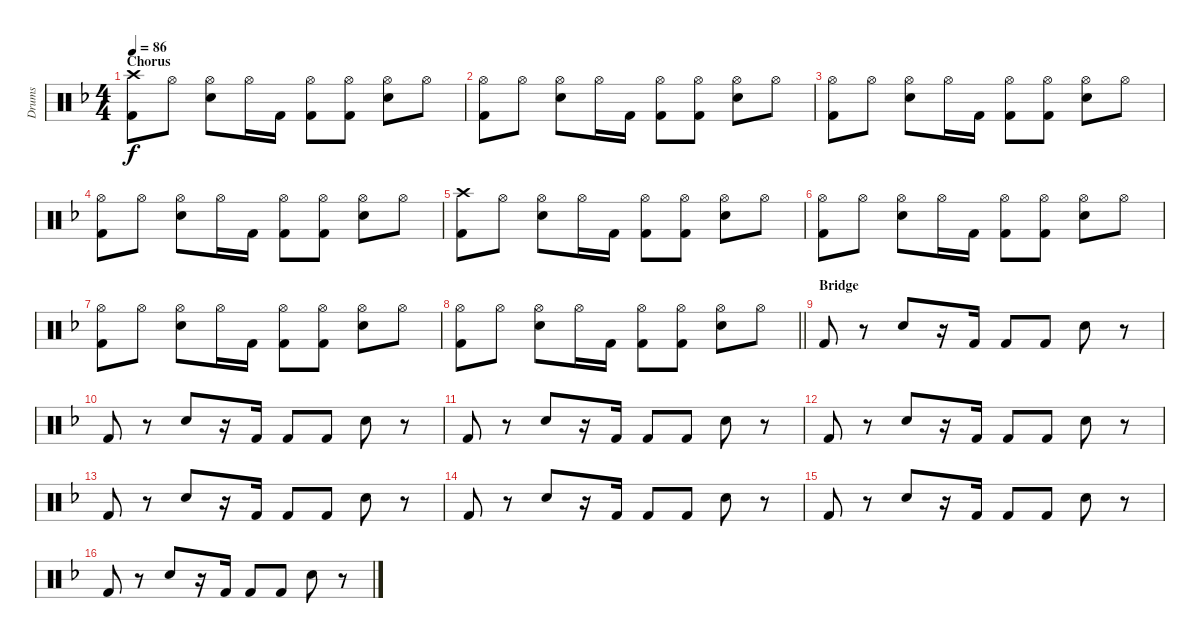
\track ("Drums" "Drums") {instrument percussion}
\staff {score}
\articulation defaults
\ts (4 4)
\section ("" "Chorus")
\tempo 86
\clef neutral
\ks dminor
("Crash high (hit)" "Kick (hit) 2").8{dy f} "Hi-Hat (open)".8 ("Hi-Hat (open)" "Snare (hit) 2").8 "Hi-Hat (open)".16 "Kick (hit) 2".16 ("Hi-Hat (open)" "Kick (hit) 2").8 ("Hi-Hat (open)" "Kick (hit) 2").8 ("Hi-Hat (open)" "Snare (hit) 2").8 "Hi-Hat (open)".8 |
("Hi-Hat (open)" "Kick (hit) 2").8 "Hi-Hat (open)".8 ("Hi-Hat (open)" "Snare (hit) 2").8 "Hi-Hat (open)".16 "Kick (hit) 2".16 ("Hi-Hat (open)" "Kick (hit) 2").8 ("Hi-Hat (open)" "Kick (hit) 2").8 ("Hi-Hat (open)" "Snare (hit) 2").8 "Hi-Hat (open)".8 |
("Hi-Hat (open)" "Kick (hit) 2").8 "Hi-Hat (open)".8 ("Hi-Hat (open)" "Snare (hit) 2").8 "Hi-Hat (open)".16 "Kick (hit) 2".16 ("Hi-Hat (open)" "Kick (hit) 2").8 ("Hi-Hat (open)" "Kick (hit) 2").8 ("Hi-Hat (open)" "Snare (hit) 2").8 "Hi-Hat (open)".8 |
("Hi-Hat (open)" "Kick (hit) 2").8 "Hi-Hat (open)".8 ("Hi-Hat (open)" "Snare (hit) 2").8 "Hi-Hat (open)".16 "Kick (hit) 2".16 ("Hi-Hat (open)" "Kick (hit) 2").8 ("Hi-Hat (open)" "Kick (hit) 2").8 ("Hi-Hat (open)" "Snare (hit) 2").8 "Hi-Hat (open)".8 |
("Crash high (hit)" "Kick (hit) 2").8 "Hi-Hat (open)".8 ("Hi-Hat (open)" "Snare (hit) 2").8 "Hi-Hat (open)".16 "Kick (hit) 2".16 ("Hi-Hat (open)" "Kick (hit) 2").8 ("Hi-Hat (open)" "Kick (hit) 2").8 ("Hi-Hat (open)" "Snare (hit) 2").8 "Hi-Hat (open)".8 |
("Hi-Hat (open)" "Kick (hit) 2").8 "Hi-Hat (open)".8 ("Hi-Hat (open)" "Snare (hit) 2").8 "Hi-Hat (open)".16 "Kick (hit) 2".16 ("Hi-Hat (open)" "Kick (hit) 2").8 ("Hi-Hat (open)" "Kick (hit) 2").8 ("Hi-Hat (open)" "Snare (hit) 2").8 "Hi-Hat (open)".8 |
("Hi-Hat (open)" "Kick (hit) 2").8 "Hi-Hat (open)".8 ("Hi-Hat (open)" "Snare (hit) 2").8 "Hi-Hat (open)".16 "Kick (hit) 2".16 ("Hi-Hat (open)" "Kick (hit) 2").8 ("Hi-Hat (open)" "Kick (hit) 2").8 ("Hi-Hat (open)" "Snare (hit) 2").8 "Hi-Hat (open)".8 |
\barLineRight lightlight
("Hi-Hat (open)" "Kick (hit) 2").8 "Hi-Hat (open)".8 ("Hi-Hat (open)" "Snare (hit) 2").8 "Hi-Hat (open)".16 "Kick (hit) 2".16 ("Hi-Hat (open)" "Kick (hit) 2").8 ("Hi-Hat (open)" "Kick (hit) 2").8 ("Hi-Hat (open)" "Snare (hit) 2").8 "Hi-Hat (open)".8 |
\section ("" "Bridge")
"Kick (hit) 2".8 r.8 "Snare (hit) 2".8 r.16 "Kick (hit) 2".16 "Kick (hit) 2".8 "Kick (hit) 2".8 "Snare (hit) 2".8 r.8 |
"Kick (hit) 2".8 r.8 "Snare (hit) 2".8 r.16 "Kick (hit) 2".16 "Kick (hit) 2".8 "Kick (hit) 2".8 "Snare (hit) 2".8 r.8 |
"Kick (hit) 2".8 r.8 "Snare (hit) 2".8 r.16 "Kick (hit) 2".16 "Kick (hit) 2".8 "Kick (hit) 2".8 "Snare (hit) 2".8 r.8 |
"Kick (hit) 2".8 r.8 "Snare (hit) 2".8 r.16 "Kick (hit) 2".16 "Kick (hit) 2".8 "Kick (hit) 2".8 "Snare (hit) 2".8 r.8 |
"Kick (hit) 2".8 r.8 "Snare (hit) 2".8 r.16 "Kick (hit) 2".16 "Kick (hit) 2".8 "Kick (hit) 2".8 "Snare (hit) 2".8 r.8 |
"Kick (hit) 2".8 r.8 "Snare (hit) 2".8 r.16 "Kick (hit) 2".16 "Kick (hit) 2".8 "Kick (hit) 2".8 "Snare (hit) 2".8 r.8 |
"Kick (hit) 2".8 r.8 "Snare (hit) 2".8 r.16 "Kick (hit) 2".16 "Kick (hit) 2".8 "Kick (hit) 2".8 "Snare (hit) 2".8 r.8 |
"Kick (hit) 2".8 r.8 "Snare (hit) 2".8 r.16 "Kick (hit) 2".16 "Kick (hit) 2".8 "Kick (hit) 2".8 "Snare (hit) 2".8 r.8
